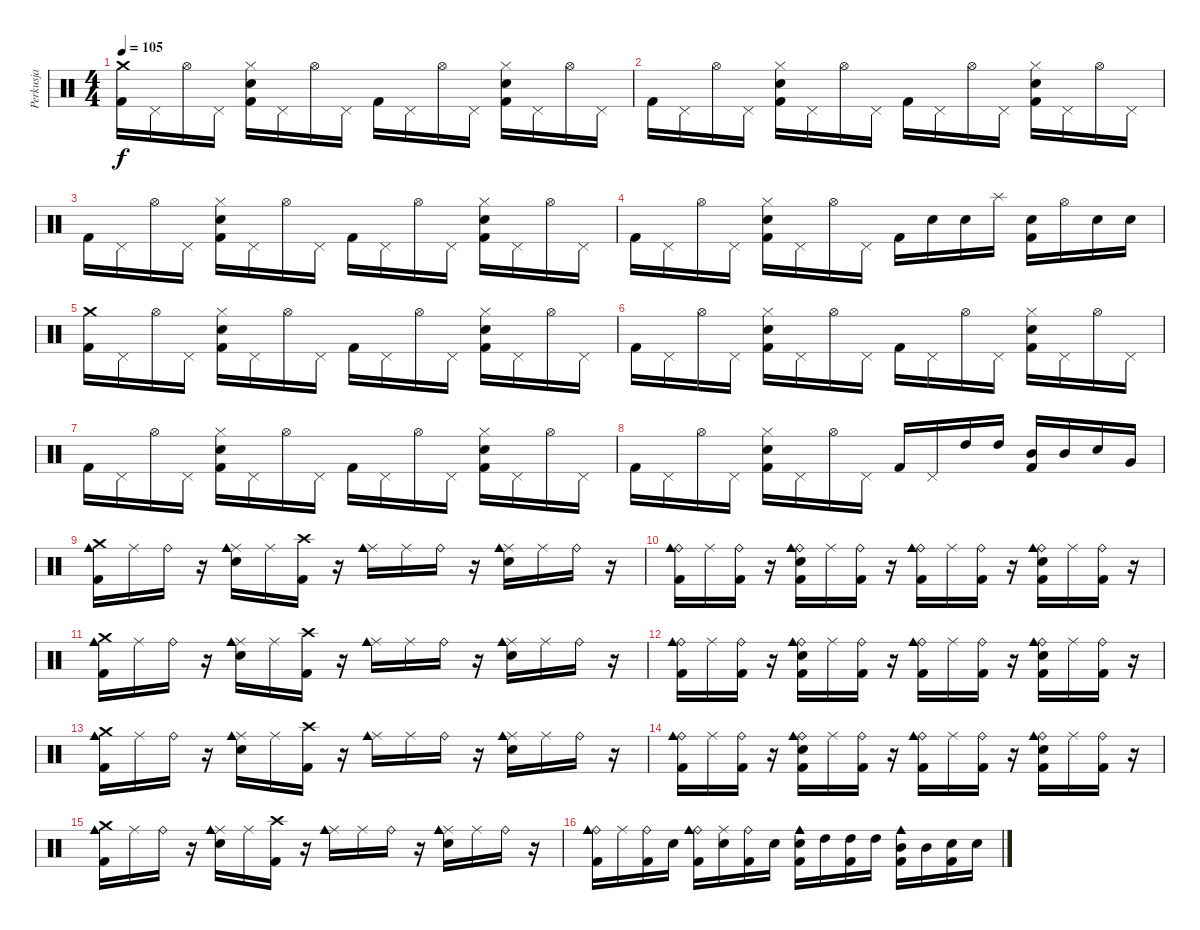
\track ("Perkusja" "Perkusja") {instrument percussion}
\staff {score}
\articulation defaults
\ts (4 4)
\tempo 105
\clef neutral
\ks c
("Crash medium (hit)" "Kick (hit) 2").16{dy f} "Pedal Hi-Hat (hit)".16 "Hi-Hat (open)".16 "Pedal Hi-Hat (hit)".16 ("Hi-Hat (closed)" "Electric Snare (hit)" "Kick (hit) 2").16 "Pedal Hi-Hat (hit)".16 "Hi-Hat (open)".16 "Pedal Hi-Hat (hit)".16 "Kick (hit) 2".16 "Pedal Hi-Hat (hit)".16 "Hi-Hat (open)".16 "Pedal Hi-Hat (hit)".16 ("Hi-Hat (closed)" "Electric Snare (hit)" "Kick (hit) 2").16 "Pedal Hi-Hat (hit)".16 "Hi-Hat (open)".16 "Pedal Hi-Hat (hit)".16 |
"Kick (hit) 2".16 "Pedal Hi-Hat (hit)".16 "Hi-Hat (open)".16 "Pedal Hi-Hat (hit)".16 ("Hi-Hat (closed)" "Electric Snare (hit)" "Kick (hit) 2").16 "Pedal Hi-Hat (hit)".16 "Hi-Hat (open)".16 "Pedal Hi-Hat (hit)".16 "Kick (hit) 2".16 "Pedal Hi-Hat (hit)".16 "Hi-Hat (open)".16 "Pedal Hi-Hat (hit)".16 ("Hi-Hat (closed)" "Electric Snare (hit)" "Kick (hit) 2").16 "Pedal Hi-Hat (hit)".16 "Hi-Hat (open)".16 "Pedal Hi-Hat (hit)".16 |
"Kick (hit) 2".16 "Pedal Hi-Hat (hit)".16 "Hi-Hat (open)".16 "Pedal Hi-Hat (hit)".16 ("Hi-Hat (closed)" "Electric Snare (hit)" "Kick (hit) 2").16 "Pedal Hi-Hat (hit)".16 "Hi-Hat (open)".16 "Pedal Hi-Hat (hit)".16 "Kick (hit) 2".16 "Pedal Hi-Hat (hit)".16 "Hi-Hat (open)".16 "Pedal Hi-Hat (hit)".16 ("Hi-Hat (closed)" "Electric Snare (hit)" "Kick (hit) 2").16 "Pedal Hi-Hat (hit)".16 "Hi-Hat (open)".16 "Pedal Hi-Hat (hit)".16 |
"Kick (hit) 2".16 "Pedal Hi-Hat (hit)".16 "Hi-Hat (open)".16 "Pedal Hi-Hat (hit)".16 ("Hi-Hat (closed)" "Electric Snare (hit)" "Kick (hit) 2").16 "Pedal Hi-Hat (hit)".16 "Hi-Hat (open)".16 "Pedal Hi-Hat (hit)".16 "Kick (hit) 2".16 "Electric Snare (hit)".16 "Electric Snare (hit)".16 "Splash (hit)".16 ("Electric Snare (hit)" "Kick (hit) 2").16 "Hi-Hat (open)".16 "Electric Snare (hit)".16 "Electric Snare (hit)".16 |
("Crash medium (hit)" "Kick (hit) 2").16 "Pedal Hi-Hat (hit)".16 "Hi-Hat (open)".16 "Pedal Hi-Hat (hit)".16 ("Hi-Hat (closed)" "Electric Snare (hit)" "Kick (hit) 2").16 "Pedal Hi-Hat (hit)".16 "Hi-Hat (open)".16 "Pedal Hi-Hat (hit)".16 "Kick (hit) 2".16 "Pedal Hi-Hat (hit)".16 "Hi-Hat (open)".16 "Pedal Hi-Hat (hit)".16 ("Hi-Hat (closed)" "Electric Snare (hit)" "Kick (hit) 2").16 "Pedal Hi-Hat (hit)".16 "Hi-Hat (open)".16 "Pedal Hi-Hat (hit)".16 |
"Kick (hit) 2".16 "Pedal Hi-Hat (hit)".16 "Hi-Hat (open)".16 "Pedal Hi-Hat (hit)".16 ("Hi-Hat (closed)" "Electric Snare (hit)" "Kick (hit) 2").16 "Pedal Hi-Hat (hit)".16 "Hi-Hat (open)".16 "Pedal Hi-Hat (hit)".16 "Kick (hit) 2".16 "Pedal Hi-Hat (hit)".16 "Hi-Hat (open)".16 "Pedal Hi-Hat (hit)".16 ("Hi-Hat (closed)" "Electric Snare (hit)" "Kick (hit) 2").16 "Pedal Hi-Hat (hit)".16 "Hi-Hat (open)".16 "Pedal Hi-Hat (hit)".16 |
"Kick (hit) 2".16 "Pedal Hi-Hat (hit)".16 "Hi-Hat (open)".16 "Pedal Hi-Hat (hit)".16 ("Hi-Hat (closed)" "Electric Snare (hit)" "Kick (hit) 2").16 "Pedal Hi-Hat (hit)".16 "Hi-Hat (open)".16 "Pedal Hi-Hat (hit)".16 "Kick (hit) 2".16 "Pedal Hi-Hat (hit)".16 "Hi-Hat (open)".16 "Pedal Hi-Hat (hit)".16 ("Hi-Hat (closed)" "Electric Snare (hit)" "Kick (hit) 2").16 "Pedal Hi-Hat (hit)".16 "Hi-Hat (open)".16 "Pedal Hi-Hat (hit)".16 |
"Kick (hit) 2".16 "Pedal Hi-Hat (hit)".16 "Hi-Hat (open)".16 "Pedal Hi-Hat (hit)".16 ("Hi-Hat (closed)" "Electric Snare (hit)" "Kick (hit) 2").16 "Pedal Hi-Hat (hit)".16 "Hi-Hat (open)".16 "Pedal Hi-Hat (hit)".16 "Kick (hit) 2".16 "Pedal Hi-Hat (hit)".16 "High Tom (hit)".16 "High Tom (hit)".16 ("Mid Tom (hit)" "Kick (hit) 2").16 "Mid Tom (hit)".16 "Electric Snare (hit)".16 "Very Low Tom (hit)".16 |
("Crash medium (hit)" "Kick (hit) 2" "Cowbell medium (hit)").16 "Ride (middle)".16 "Ride (bell)".16 r.16 ("Ride (middle)" "Electric Snare (hit)" "Cowbell medium (hit)").16 "Ride (middle)".16 ("Crash high (hit)" "Kick (hit) 2").16 r.16 ("Ride (middle)" "Cowbell medium (hit)").16 "Ride (middle)".16 "Ride (bell)".16 r.16 ("Ride (middle)" "Electric Snare (hit)" "Cowbell medium (hit)").16 "Ride (middle)".16 "Ride (bell)".16 r.16 |
("Ride (bell)" "Kick (hit) 2" "Cowbell medium (hit)").16 "Ride (middle)".16 ("Ride (bell)" "Kick (hit) 2").16 r.16 ("Ride (bell)" "Electric Snare (hit)" "Kick (hit) 2" "Cowbell medium (hit)").16 "Ride (middle)".16 ("Ride (bell)" "Kick (hit) 2").16 r.16 ("Ride (bell)" "Kick (hit) 2" "Cowbell medium (hit)").16 "Ride (middle)".16 ("Ride (bell)" "Kick (hit) 2").16 r.16 ("Ride (bell)" "Electric Snare (hit)" "Kick (hit) 2" "Cowbell medium (hit)").16 "Ride (middle)".16 ("Ride (bell)" "Kick (hit) 2").16 r.16 |
("Crash medium (hit)" "Kick (hit) 2" "Cowbell medium (hit)").16 "Ride (middle)".16 "Ride (bell)".16 r.16 ("Ride (middle)" "Electric Snare (hit)" "Cowbell medium (hit)").16 "Ride (middle)".16 ("Crash high (hit)" "Kick (hit) 2").16 r.16 ("Ride (middle)" "Cowbell medium (hit)").16 "Ride (middle)".16 "Ride (bell)".16 r.16 ("Ride (middle)" "Electric Snare (hit)" "Cowbell medium (hit)").16 "Ride (middle)".16 "Ride (bell)".16 r.16 |
("Ride (bell)" "Kick (hit) 2" "Cowbell medium (hit)").16 "Ride (middle)".16 ("Ride (bell)" "Kick (hit) 2").16 r.16 ("Ride (bell)" "Electric Snare (hit)" "Kick (hit) 2" "Cowbell medium (hit)").16 "Ride (middle)".16 ("Ride (bell)" "Kick (hit) 2").16 r.16 ("Ride (bell)" "Kick (hit) 2" "Cowbell medium (hit)").16 "Ride (middle)".16 ("Ride (bell)" "Kick (hit) 2").16 r.16 ("Ride (bell)" "Electric Snare (hit)" "Kick (hit) 2" "Cowbell medium (hit)").16 "Ride (middle)".16 ("Ride (bell)" "Kick (hit) 2").16 r.16 |
("Crash medium (hit)" "Kick (hit) 2" "Cowbell medium (hit)").16 "Ride (middle)".16 "Ride (bell)".16 r.16 ("Ride (middle)" "Electric Snare (hit)" "Cowbell medium (hit)").16 "Ride (middle)".16 ("Crash high (hit)" "Kick (hit) 2").16 r.16 ("Ride (middle)" "Cowbell medium (hit)").16 "Ride (middle)".16 "Ride (bell)".16 r.16 ("Ride (middle)" "Electric Snare (hit)" "Cowbell medium (hit)").16 "Ride (middle)".16 "Ride (bell)".16 r.16 |
("Ride (bell)" "Kick (hit) 2" "Cowbell medium (hit)").16 "Ride (middle)".16 ("Ride (bell)" "Kick (hit) 2").16 r.16 ("Ride (bell)" "Electric Snare (hit)" "Kick (hit) 2" "Cowbell medium (hit)").16 "Ride (middle)".16 ("Ride (bell)" "Kick (hit) 2").16 r.16 ("Ride (bell)" "Kick (hit) 2" "Cowbell medium (hit)").16 "Ride (middle)".16 ("Ride (bell)" "Kick (hit) 2").16 r.16 ("Ride (bell)" "Electric Snare (hit)" "Kick (hit) 2" "Cowbell medium (hit)").16 "Ride (middle)".16 ("Ride (bell)" "Kick (hit) 2").16 r.16 |
("Crash medium (hit)" "Kick (hit) 2" "Cowbell medium (hit)").16 "Ride (middle)".16 "Ride (bell)".16 r.16 ("Ride (middle)" "Electric Snare (hit)" "Cowbell medium (hit)").16 "Ride (middle)".16 ("Crash high (hit)" "Kick (hit) 2").16 r.16 ("Ride (middle)" "Cowbell medium (hit)").16 "Ride (middle)".16 "Ride (bell)".16 r.16 ("Ride (middle)" "Electric Snare (hit)" "Cowbell medium (hit)").16 "Ride (middle)".16 "Ride (bell)".16 r.16 |
("Ride (bell)" "Kick (hit) 2" "Cowbell medium (hit)").16 "Ride (middle)".16 ("Ride (bell)" "Kick (hit) 2").16 "Electric Snare (hit)".16 ("Ride (bell)" "Kick (hit) 2" "Cowbell medium (hit)").16 ("Ride (middle)" "Electric Snare (hit)").16 ("Ride (bell)" "Kick (hit) 2").16 "Electric Snare (hit)".16 ("Electric Snare (hit)" "Kick (hit) 2" "Cowbell medium (hit)").16 "High Tom (hit)".16 ("High Tom (hit)" "Kick (hit) 2").16 "High Tom (hit)".16 ("Mid Tom (hit)" "Kick (hit) 2" "Cowbell medium (hit)").16 "Mid Tom (hit)".16 ("Electric Snare (hit)" "Kick (hit) 2").16 "Electric Snare (hit)".16
